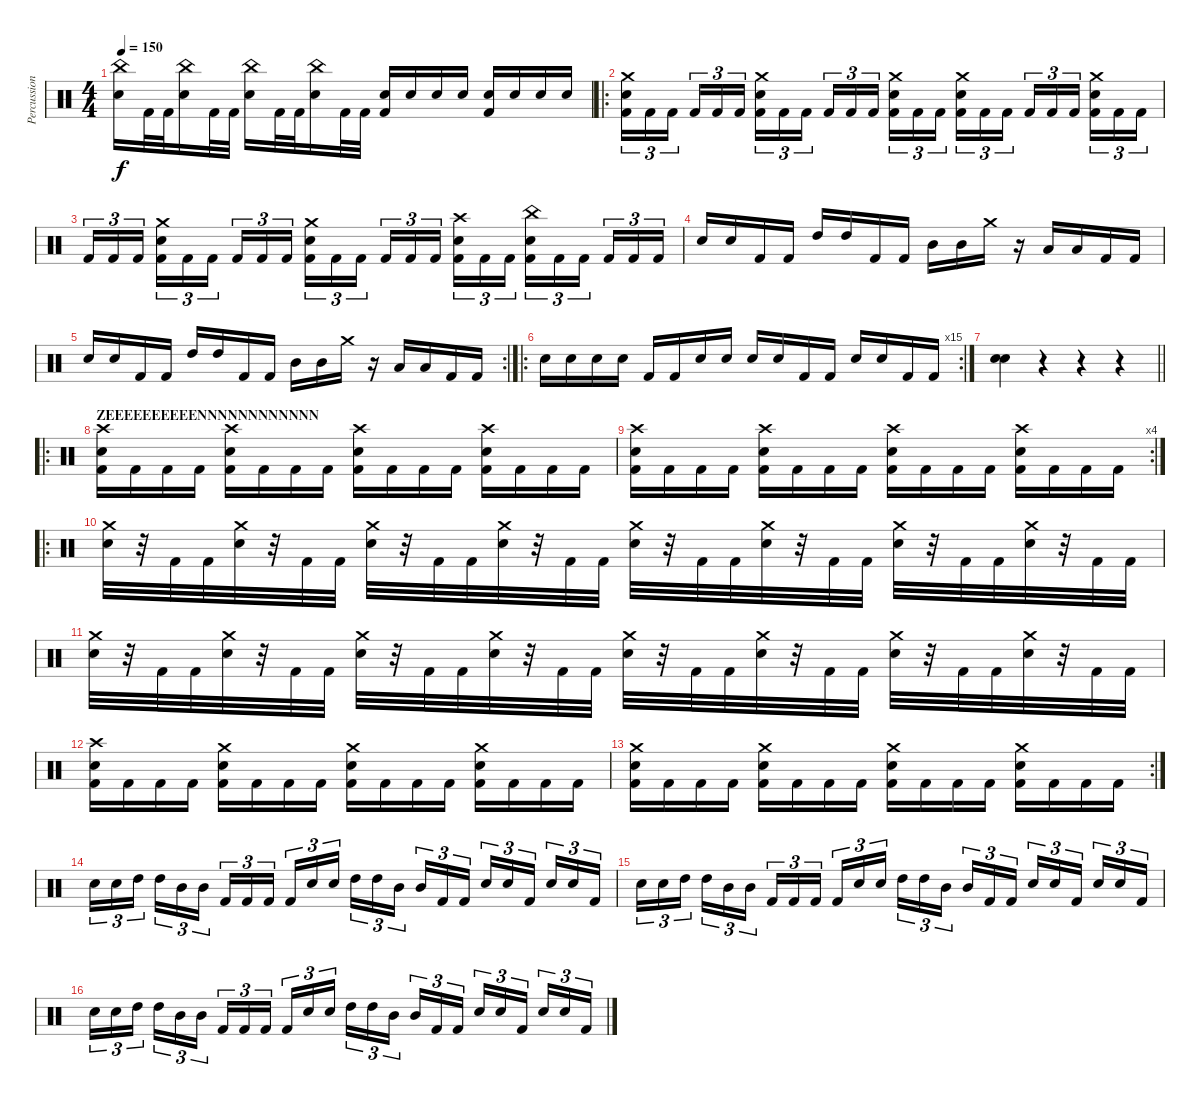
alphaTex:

\track ("Percussion" "Percussion") {instrument percussion}
\staff {score}
\articulation defaults
\ts (4 4)
\tempo 150
\clef neutral
\ks c
("China (hit)" "Electric Snare (hit)").16{dy f} "Kick (hit) 2".32 "Kick (hit) 2".32 ("China (hit)" "Electric Snare (hit)").16 "Kick (hit) 2".32 "Kick (hit) 2".32 ("China (hit)" "Electric Snare (hit)").16 "Kick (hit) 2".32 "Kick (hit) 2".32 ("China (hit)" "Electric Snare (hit)").16 "Kick (hit) 2".32 "Kick (hit) 2".32 ("Electric Snare (hit)" "Kick (hit) 2").16 "Electric Snare (hit)".16 "Electric Snare (hit)".16 "Electric Snare (hit)".16 ("Electric Snare (hit)" "Kick (hit) 2").16 "Electric Snare (hit)".16 "Electric Snare (hit)".16 "Electric Snare (hit)".16 |
\ro
("Crash medium (hit)" "Electric Snare (hit)" "Kick (hit) 2").16{tu (3 2)} "Kick (hit) 2".16{tu (3 2)} "Kick (hit) 2".16{tu (3 2) beam splitsecondary} "Kick (hit) 2".16{tu (3 2)} "Kick (hit) 2".16{tu (3 2)} "Kick (hit) 2".16{tu (3 2)} ("Crash medium (hit)" "Electric Snare (hit)" "Kick (hit) 2").16{tu (3 2)} "Kick (hit) 2".16{tu (3 2)} "Kick (hit) 2".16{tu (3 2) beam splitsecondary} "Kick (hit) 2".16{tu (3 2)} "Kick (hit) 2".16{tu (3 2)} "Kick (hit) 2".16{tu (3 2)} ("Crash medium (hit)" "Electric Snare (hit)" "Kick (hit) 2").16{tu (3 2)} "Kick (hit) 2".16{tu (3 2)} "Kick (hit) 2".16{tu (3 2) beam splitsecondary} ("Crash medium (hit)" "Electric Snare (hit)" "Kick (hit) 2").16{tu (3 2)} "Kick (hit) 2".16{tu (3 2)} "Kick (hit) 2".16{tu (3 2)} "Kick (hit) 2".16{tu (3 2)} "Kick (hit) 2".16{tu (3 2)} "Kick (hit) 2".16{tu (3 2) beam splitsecondary} ("Crash medium (hit)" "Electric Snare (hit)" "Kick (hit) 2").16{tu (3 2)} "Kick (hit) 2".16{tu (3 2)} "Kick (hit) 2".16{tu (3 2)} |
"Kick (hit) 2".16{tu (3 2)} "Kick (hit) 2".16{tu (3 2)} "Kick (hit) 2".16{tu (3 2) beam splitsecondary} ("Crash medium (hit)" "Electric Snare (hit)" "Kick (hit) 2").16{tu (3 2)} "Kick (hit) 2".16{tu (3 2)} "Kick (hit) 2".16{tu (3 2)} "Kick (hit) 2".16{tu (3 2)} "Kick (hit) 2".16{tu (3 2)} "Kick (hit) 2".16{tu (3 2) beam splitsecondary} ("Crash medium (hit)" "Electric Snare (hit)" "Kick (hit) 2").16{tu (3 2)} "Kick (hit) 2".16{tu (3 2)} "Kick (hit) 2".16{tu (3 2)} "Kick (hit) 2".16{tu (3 2)} "Kick (hit) 2".16{tu (3 2)} "Kick (hit) 2".16{tu (3 2) beam splitsecondary} ("Crash high (hit)" "Electric Snare (hit)" "Kick (hit) 2").16{tu (3 2)} "Kick (hit) 2".16{tu (3 2)} "Kick (hit) 2".16{tu (3 2)} ("China (hit)" "Electric Snare (hit)" "Kick (hit) 2").16{tu (3 2)} "Kick (hit) 2".16{tu (3 2)} "Kick (hit) 2".16{tu (3 2) beam splitsecondary} "Kick (hit) 2".16{tu (3 2)} "Kick (hit) 2".16{tu (3 2)} "Kick (hit) 2".16{tu (3 2)} |
"Electric Snare (hit)".16 "Electric Snare (hit)".16 "Kick (hit) 2".16 "Kick (hit) 2".16 "High Tom (hit)".16 "High Tom (hit)".16 "Kick (hit) 2".16 "Kick (hit) 2".16 "Mid Tom (hit)".16 "Mid Tom (hit)".16 "Crash medium (hit)".16 r.16 "Low Tom (hit)".16 "Low Tom (hit)".16 "Kick (hit) 2".16 "Kick (hit) 2".16 |
\rc 2 "Electric Snare (hit)".16 "Electric Snare (hit)".16 "Kick (hit) 2".16 "Kick (hit) 2".16 "High Tom (hit)".16 "High Tom (hit)".16 "Kick (hit) 2".16 "Kick (hit) 2".16 "Mid Tom (hit)".16 "Mid Tom (hit)".16 "Crash medium (hit)".16
r.16 "Low Tom (hit)".16 "Low Tom (hit)".16 "Kick (hit) 2".16 "Kick (hit) 2".16 |
\ro
\rc 15 "Electric Snare (hit)".16 "Electric Snare (hit)".16 "Electric Snare (hit)".16 "Electric Snare (hit)".16 "Kick (hit) 2".16 "Kick (hit) 2".16 "Electric Snare (hit)".16 "Electric Snare (hit)".16 "Electric Snare (hit)".16 "Electric Snare (hit)".16 "Kick (hit) 2".16 "Kick (hit) 2".16 "Electric Snare (hit)".16 "Electric Snare (hit)".16 "Kick (hit) 2".16 "Kick (hit) 2".16
|
\barLineRight lightlight
("Electric Snare (hit)" "Electric Snare (hit)").4{bu 480} r.4 r.4 r.4 |
\ro
\section ("" "ZEEEEEEEEEENNNNNNNNNNNN")
("Crash high (hit)" "Electric Snare (hit)" "Kick (hit) 2").16 "Kick (hit) 2".16 "Kick (hit) 2".16 "Kick (hit) 2".16 ("Crash high (hit)" "Electric Snare (hit)" "Kick (hit) 2").16 "Kick (hit) 2".16 "Kick (hit) 2".16 "Kick (hit) 2".16 ("Crash high (hit)" "Electric Snare (hit)" "Kick (hit) 2").16 "Kick (hit) 2".16 "Kick (hit) 2".16 "Kick (hit) 2".16 ("Crash high (hit)" "Electric Snare (hit)" "Kick (hit) 2").16 "Kick (hit) 2".16 "Kick (hit) 2".16 "Kick (hit) 2".16 |
\rc 4
("Crash high (hit)" "Electric Snare (hit)" "Kick (hit) 2").16 "Kick (hit) 2".16 "Kick (hit) 2".16 "Kick (hit) 2".16 ("Crash high (hit)" "Electric Snare (hit)" "Kick (hit) 2").16 "Kick (hit) 2".16 "Kick (hit) 2".16 "Kick (hit) 2".16 ("Crash high (hit)" "Electric Snare (hit)" "Kick (hit) 2").16 "Kick (hit) 2".16 "Kick (hit) 2".16 "Kick (hit) 2".16 ("Crash high (hit)" "Electric Snare (hit)" "Kick (hit) 2").16 "Kick (hit) 2".16 "Kick (hit) 2".16 "Kick (hit) 2".16 |
\ro
("Crash medium (hit)" "Electric Snare (hit)").32 r.32 "Kick (hit) 2".32 "Kick (hit) 2".32 ("Crash medium (hit)" "Electric Snare (hit)").32 r.32 "Kick (hit) 2".32 "Kick (hit) 2".32 ("Crash medium (hit)" "Electric Snare (hit)").32 r.32 "Kick (hit) 2".32 "Kick (hit) 2".32 ("Crash medium (hit)" "Electric Snare (hit)").32 r.32 "Kick (hit) 2".32 "Kick (hit) 2".32 ("Crash medium (hit)" "Electric Snare (hit)").32 r.32 "Kick (hit) 2".32 "Kick (hit) 2".32 ("Crash medium (hit)" "Electric Snare (hit)").32 r.32 "Kick (hit) 2".32 "Kick (hit) 2".32 ("Crash medium (hit)" "Electric Snare (hit)").32 r.32 "Kick (hit) 2".32 "Kick (hit) 2".32 ("Crash medium (hit)" "Electric Snare (hit)").32 r.32 "Kick (hit) 2".32 "Kick (hit) 2".32 |
("Crash medium (hit)" "Electric Snare (hit)").32 r.32 "Kick (hit) 2".32 "Kick (hit) 2".32 ("Crash medium (hit)" "Electric Snare (hit)").32 r.32 "Kick (hit) 2".32 "Kick (hit) 2".32 ("Crash medium (hit)" "Electric Snare (hit)").32 r.32 "Kick (hit) 2".32 "Kick (hit) 2".32 ("Crash medium (hit)" "Electric Snare (hit)").32 r.32 "Kick (hit) 2".32 "Kick (hit) 2".32 ("Crash medium (hit)" "Electric Snare (hit)").32 r.32 "Kick (hit) 2".32 "Kick (hit) 2".32 ("Crash medium (hit)" "Electric Snare (hit)").32 r.32 "Kick (hit) 2".32 "Kick (hit) 2".32 ("Crash medium (hit)" "Electric Snare (hit)").32 r.32 "Kick (hit) 2".32 "Kick (hit) 2".32 ("Crash medium (hit)" "Electric Snare (hit)").32 r.32 "Kick (hit) 2".32 "Kick (hit) 2".32 |
("Crash high (hit)" "Electric Snare (hit)" "Kick (hit) 2").16 "Kick (hit) 2".16 "Kick (hit) 2".16 "Kick (hit) 2".16 ("Crash medium (hit)" "Electric Snare (hit)" "Kick (hit) 2").16 "Kick (hit) 2".16 "Kick (hit) 2".16 "Kick (hit) 2".16 ("Crash medium (hit)" "Electric Snare (hit)" "Kick (hit) 2").16 "Kick (hit) 2".16 "Kick (hit) 2".16 "Kick (hit) 2".16 ("Crash medium (hit)" "Electric Snare (hit)" "Kick (hit) 2").16 "Kick (hit) 2".16 "Kick (hit) 2".16 "Kick (hit) 2".16 |
\rc 2
("Crash medium (hit)" "Electric Snare (hit)" "Kick (hit) 2").16 "Kick (hit) 2".16 "Kick (hit) 2".16 "Kick (hit) 2".16 ("Crash medium (hit)" "Electric Snare (hit)" "Kick (hit) 2").16 "Kick (hit) 2".16 "Kick (hit) 2".16 "Kick (hit) 2".16 ("Crash medium (hit)" "Electric Snare (hit)" "Kick (hit) 2").16 "Kick (hit) 2".16 "Kick (hit) 2".16 "Kick (hit) 2".16 ("Crash medium (hit)" "Electric Snare (hit)" "Kick (hit) 2").16 "Kick (hit) 2".16 "Kick (hit) 2".16 "Kick (hit) 2".16 |
"Electric Snare (hit)".16{tu (3 2)} "Electric Snare (hit)".16{tu (3 2)} "High Tom (hit)".16{tu (3 2) beam splitsecondary} "High Tom (hit)".16{tu (3 2)} "Mid Tom (hit)".16{tu (3 2)} "Mid Tom (hit)".16{tu (3 2)} "Kick (hit) 2".16{tu (3 2)} "Kick (hit) 2".16{tu (3 2)} "Kick (hit) 2".16{tu (3 2) beam splitsecondary} "Kick (hit) 2".16{tu (3 2)} "Electric Snare (hit)".16{tu (3 2)} "Electric Snare (hit)".16{tu (3 2)} "High Tom (hit)".16{tu (3 2)} "High Tom (hit)".16{tu (3 2)} "Mid Tom (hit)".16{tu (3 2) beam splitsecondary} "Mid Tom (hit)".16{tu (3 2)} "Kick (hit) 2".16{tu (3 2)} "Kick (hit) 2".16{tu (3 2)} "Electric Snare (hit)".16{tu (3 2)} "Electric Snare (hit)".16{tu (3 2)} "Kick (hit) 2".16{tu (3 2) beam splitsecondary} "Electric Snare (hit)".16{tu (3 2)} "Electric Snare (hit)".16{tu (3 2)} "Kick (hit) 2".16{tu (3 2)} |
"Electric Snare (hit)".16{tu (3 2)} "Electric Snare (hit)".16{tu (3 2)} "High Tom (hit)".16{tu (3 2) beam splitsecondary} "High Tom (hit)".16{tu (3 2)} "Mid Tom (hit)".16{tu (3 2)} "Mid Tom (hit)".16{tu (3 2)} "Kick (hit) 2".16{tu (3 2)} "Kick (hit) 2".16{tu (3 2)} "Kick (hit) 2".16{tu (3 2) beam splitsecondary} "Kick (hit) 2".16{tu (3 2)} "Electric Snare (hit)".16{tu (3 2)} "Electric Snare (hit)".16{tu (3 2)} "High Tom (hit)".16{tu (3 2)} "High Tom (hit)".16{tu (3 2)} "Mid Tom (hit)".16{tu (3 2) beam splitsecondary} "Mid Tom (hit)".16{tu (3 2)} "Kick (hit) 2".16{tu (3 2)} "Kick (hit) 2".16{tu (3 2)} "Electric Snare (hit)".16{tu (3 2)} "Electric Snare (hit)".16{tu (3 2)} "Kick (hit) 2".16{tu (3 2) beam splitsecondary} "Electric Snare (hit)".16{tu (3 2)} "Electric Snare (hit)".16{tu (3 2)} "Kick (hit) 2".16{tu (3 2)} |
"Electric Snare (hit)".16{tu (3 2)} "Electric Snare (hit)".16{tu (3 2)} "High Tom (hit)".16{tu (3 2) beam splitsecondary} "High Tom (hit)".16{tu (3 2)} "Mid Tom (hit)".16{tu (3 2)} "Mid Tom (hit)".16{tu (3 2)} "Kick (hit) 2".16{tu (3 2)} "Kick (hit) 2".16{tu (3 2)} "Kick (hit) 2".16{tu (3 2) beam splitsecondary} "Kick (hit) 2".16{tu (3 2)} "Electric Snare (hit)".16{tu (3 2)} "Electric Snare (hit)".16{tu (3 2)} "High Tom (hit)".16{tu (3 2)} "High Tom (hit)".16{tu (3 2)} "Mid Tom (hit)".16{tu (3 2) beam splitsecondary} "Mid Tom (hit)".16{tu (3 2)} "Kick (hit) 2".16{tu (3 2)} "Kick (hit) 2".16{tu (3 2)} "Electric Snare (hit)".16{tu (3 2)} "Electric Snare (hit)".16{tu (3 2)} "Kick (hit) 2".16{tu (3 2) beam splitsecondary} "Electric Snare (hit)".16{tu (3 2)} "Electric Snare (hit)".16{tu (3 2)} "Kick (hit) 2".16{tu (3 2)}
